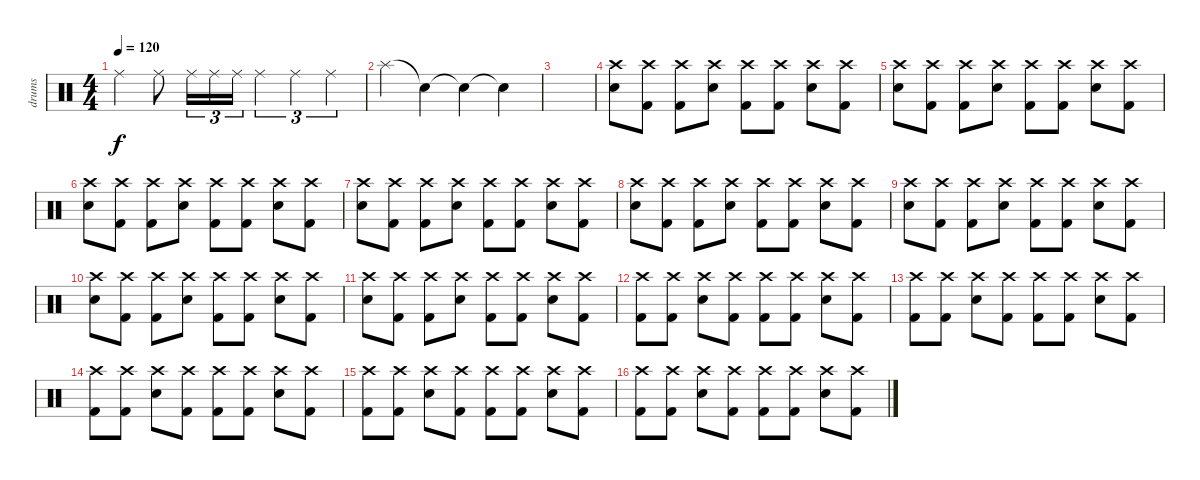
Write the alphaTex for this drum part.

\track ("drums" "drums") {instrument percussion}
\staff {score}
\articulation defaults
\ts (4 4)
\tempo 120
\clef neutral
\ks c "Ride (middle)".4{dy f} "Ride (middle)".8 "Ride (middle)".16{tu (3 2)} "Ride (middle)".16{tu (3 2)} "Ride (middle)".16{tu (3 2)} "Ride (middle)".4{tu (3 2)} "Ride (middle)".4{tu (3 2)} "Ride (middle)".4{tu (3 2)}
|
"Splash (hit)".4 "Snare (hit)"{t}.4 "Snare (hit)"{t}.4 "Snare (hit)"{t}.4 |
|
("Snare (hit) 2" "Crash high (hit)").8 ("Kick (hit) 2" "Crash high (hit)").8 ("Crash high (hit)" "Kick (hit) 2").8 ("Snare (hit) 2" "Crash high (hit)").8 ("Kick (hit) 2" "Crash high (hit)").8 ("Kick (hit) 2" "Crash high (hit)").8 ("Snare (hit) 2" "Crash high (hit)").8 ("Crash high (hit)" "Kick (hit) 2").8 |
("Snare (hit) 2" "Crash high (hit)").8 ("Kick (hit) 2" "Crash high (hit)").8 ("Crash high (hit)" "Kick (hit) 2").8 ("Snare (hit) 2" "Crash high (hit)").8 ("Kick (hit) 2" "Crash high (hit)").8 ("Kick (hit) 2" "Crash high (hit)").8 ("Snare (hit) 2" "Crash high (hit)").8 ("Crash high (hit)" "Kick (hit) 2").8 |
("Snare (hit) 2" "Crash high (hit)").8 ("Kick (hit) 2" "Crash high (hit)").8 ("Crash high (hit)" "Kick (hit) 2").8 ("Snare (hit) 2" "Crash high (hit)").8 ("Kick (hit) 2" "Crash high (hit)").8 ("Kick (hit) 2" "Crash high (hit)").8 ("Snare (hit) 2" "Crash high (hit)").8 ("Crash high (hit)" "Kick (hit) 2").8 |
("Snare (hit) 2" "Crash high (hit)").8 ("Kick (hit) 2" "Crash high (hit)").8 ("Crash high (hit)" "Kick (hit) 2").8 ("Snare (hit) 2" "Crash high (hit)").8 ("Kick (hit) 2" "Crash high (hit)").8 ("Kick (hit) 2" "Crash high (hit)").8 ("Snare (hit) 2" "Crash high (hit)").8 ("Crash high (hit)" "Kick (hit) 2").8 |
("Snare (hit) 2" "Crash high (hit)").8 ("Kick (hit) 2" "Crash high (hit)").8 ("Crash high (hit)" "Kick (hit) 2").8 ("Snare (hit) 2" "Crash high (hit)").8 ("Kick (hit) 2" "Crash high (hit)").8 ("Kick (hit) 2" "Crash high (hit)").8 ("Snare (hit) 2" "Crash high (hit)").8 ("Crash high (hit)" "Kick (hit) 2").8 |
("Snare (hit) 2" "Crash high (hit)").8 ("Kick (hit) 2" "Crash high (hit)").8 ("Crash high (hit)" "Kick (hit) 2").8 ("Snare (hit) 2" "Crash high (hit)").8 ("Kick (hit) 2" "Crash high (hit)").8 ("Kick (hit) 2" "Crash high (hit)").8 ("Snare (hit) 2" "Crash high (hit)").8 ("Crash high (hit)" "Kick (hit) 2").8 |
("Snare (hit) 2" "Crash high (hit)").8 ("Kick (hit) 2" "Crash high (hit)").8 ("Crash high (hit)" "Kick (hit) 2").8 ("Snare (hit) 2" "Crash high (hit)").8 ("Kick (hit) 2" "Crash high (hit)").8 ("Kick (hit) 2" "Crash high (hit)").8 ("Snare (hit) 2" "Crash high (hit)").8 ("Crash high (hit)" "Kick (hit) 2").8 |
("Snare (hit) 2" "Crash high (hit)").8 ("Kick (hit) 2" "Crash high (hit)").8 ("Crash high (hit)" "Kick (hit) 2").8 ("Snare (hit) 2" "Crash high (hit)").8 ("Kick (hit) 2" "Crash high (hit)").8 ("Kick (hit) 2" "Crash high (hit)").8 ("Snare (hit) 2" "Crash high (hit)").8 ("Crash high (hit)" "Kick (hit) 2").8 |
("Crash high (hit)" "Kick (hit) 2").8 ("Crash high (hit)" "Kick (hit) 2").8 ("Snare (hit) 2" "Crash high (hit)").8 ("Crash high (hit)" "Kick (hit) 2").8 ("Kick (hit) 2" "Crash high (hit)").8 ("Crash high (hit)" "Kick (hit) 2").8 ("Snare (hit) 2" "Crash high (hit)").8 ("Crash high (hit)" "Kick (hit) 2").8 |
("Crash high (hit)" "Kick (hit) 2").8 ("Crash high (hit)" "Kick (hit) 2").8 ("Snare (hit) 2" "Crash high (hit)").8 ("Crash high (hit)" "Kick (hit) 2").8 ("Kick (hit) 2" "Crash high (hit)").8 ("Crash high (hit)" "Kick (hit) 2").8 ("Snare (hit) 2" "Crash high (hit)").8 ("Crash high (hit)" "Kick (hit) 2").8 |
("Crash high (hit)" "Kick (hit) 2").8 ("Crash high (hit)" "Kick (hit) 2").8 ("Snare (hit) 2" "Crash high (hit)").8 ("Crash high (hit)" "Kick (hit) 2").8 ("Kick (hit) 2" "Crash high (hit)").8 ("Crash high (hit)" "Kick (hit) 2").8 ("Snare (hit) 2" "Crash high (hit)").8 ("Crash high (hit)" "Kick (hit) 2").8 |
("Crash high (hit)" "Kick (hit) 2").8 ("Crash high (hit)" "Kick (hit) 2").8 ("Snare (hit) 2" "Crash high (hit)").8 ("Crash high (hit)" "Kick (hit) 2").8 ("Kick (hit) 2" "Crash high (hit)").8 ("Crash high (hit)" "Kick (hit) 2").8 ("Snare (hit) 2" "Crash high (hit)").8 ("Crash high (hit)" "Kick (hit) 2").8 |
("Crash high (hit)" "Kick (hit) 2").8 ("Crash high (hit)" "Kick (hit) 2").8 ("Snare (hit) 2" "Crash high (hit)").8 ("Crash high (hit)" "Kick (hit) 2").8 ("Kick (hit) 2" "Crash high (hit)").8 ("Crash high (hit)" "Kick (hit) 2").8 ("Snare (hit) 2" "Crash high (hit)").8 ("Crash high (hit)" "Kick (hit) 2").8
